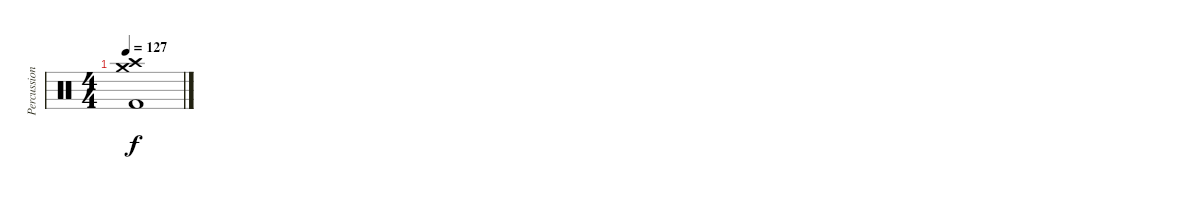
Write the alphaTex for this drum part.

\track ("Percussion" "Percussion") {instrument percussion}
\staff {score}
\articulation defaults
\ts (4 4)
\tempo 127
\clef neutral
\ks c
("Crash high (hit)" "Crash medium (hit)" "Kick (hit) 2").1{dy f}
